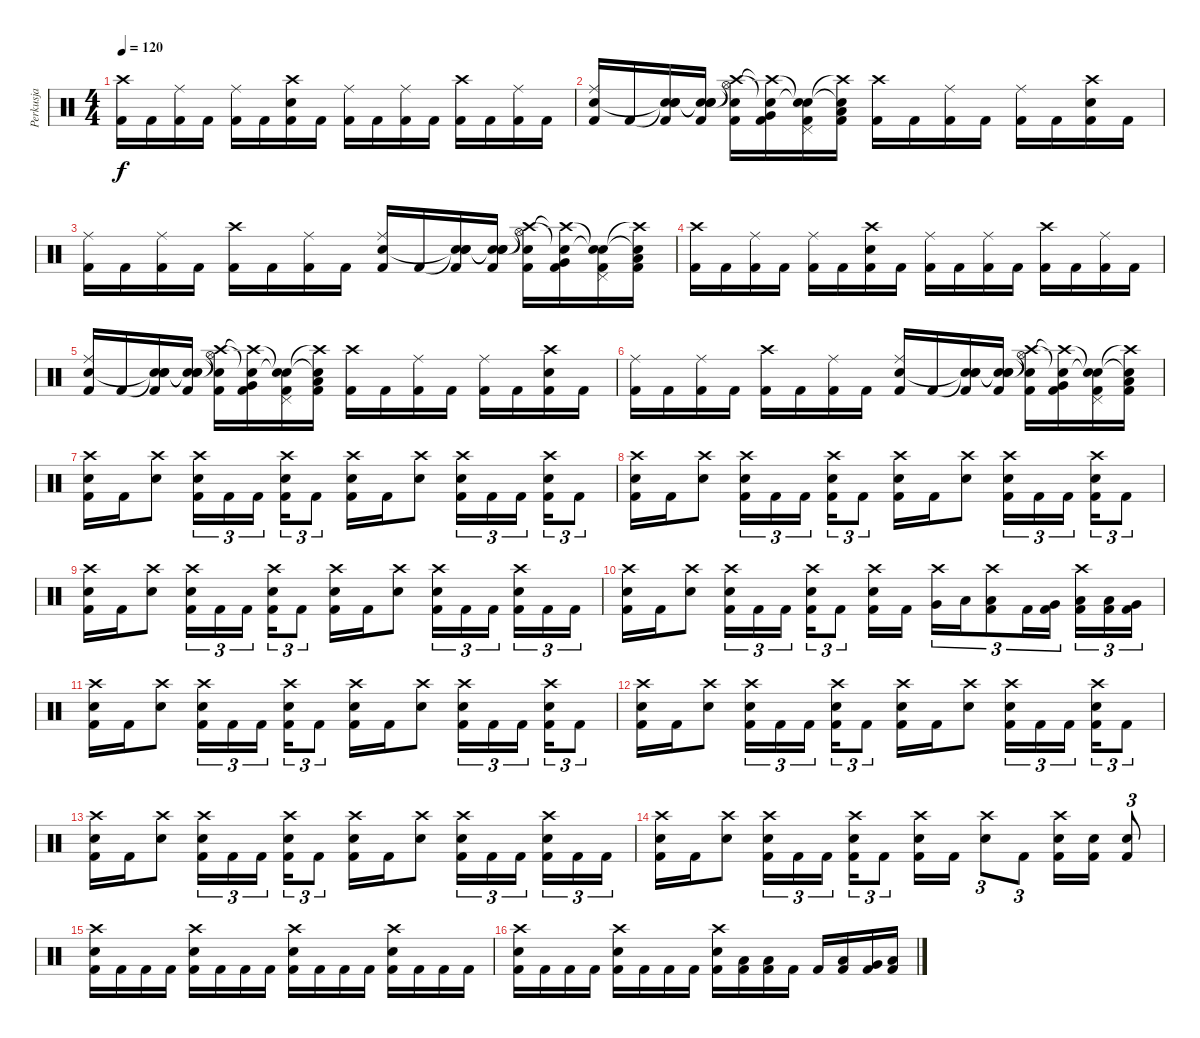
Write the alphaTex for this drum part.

\track ("Perkusja" "Perkusja") {instrument percussion}
\staff {score}
\articulation defaults
\ts (4 4)
\tempo 120
\clef neutral
\ks c
("Crash high (hit)" "Kick (hit) 2").16{dy f} "Kick (hit) 2".16 ("Ride (middle)" "Kick (hit) 2").16 "Kick (hit) 2".16 ("Ride (middle)" "Kick (hit) 2").16 "Kick (hit) 2".16 ("Crash high (hit)" "Electric Snare (hit)" "Kick (hit) 2").16 "Kick (hit) 2".16 ("Ride (middle)" "Kick (hit) 2").16 "Kick (hit) 2".16 ("Ride (middle)" "Kick (hit) 2").16 "Kick (hit) 2".16 ("Crash high (hit)" "Kick (hit) 2").16 "Kick (hit) 2".16 ("Ride (middle)" "Kick (hit) 2").16 "Kick (hit) 2".16 |
("Ride (middle)" "Electric Snare (hit)" "Kick (hit) 2").16 "Kick (hit) 2".16 ("Snare (hit)"{t} "Snare (hit)"{t} "Electric Snare (hit)" "Kick (hit) 2").16 ("Snare (hit)"{t} "Snare (hit)"{t} "Electric Snare (hit)" "Kick (hit) 2").16 ("Crash high (hit)"{t} "Hi-Hat (open)"{t} "Electric Snare (hit)" "Kick (hit) 2").16 ("Snare (hit)"{t} "Crash high (hit)"{t} "Very Low Tom (hit)" "Kick (hit) 2").16 ("Snare (hit)"{t} "Snare (hit)"{t} "Pedal Hi-Hat (hit)" "Kick (hit) 2").16 ("Snare (hit)"{t} "Crash high (hit)"{t} "Low Floor Tom (hit)" "Kick (hit) 2").16 ("Crash high (hit)" "Kick (hit) 2").16 "Kick (hit) 2".16 ("Ride (middle)" "Kick (hit) 2").16 "Kick (hit) 2".16 ("Ride (middle)" "Kick (hit) 2").16 "Kick (hit) 2".16 ("Crash high (hit)" "Electric Snare (hit)" "Kick (hit) 2").16 "Kick (hit) 2".16 |
("Ride (middle)" "Kick (hit) 2").16 "Kick (hit) 2".16 ("Ride (middle)" "Kick (hit) 2").16 "Kick (hit) 2".16 ("Crash high (hit)" "Kick (hit) 2").16 "Kick (hit) 2".16 ("Ride (middle)" "Kick (hit) 2").16 "Kick (hit) 2".16 ("Ride (middle)" "Electric Snare (hit)" "Kick (hit) 2").16 "Kick (hit) 2".16 ("Snare (hit)"{t} "Snare (hit)"{t} "Electric Snare (hit)" "Kick (hit) 2").16 ("Snare (hit)"{t} "Snare (hit)"{t} "Electric Snare (hit)" "Kick (hit) 2").16 ("Crash high (hit)"{t} "Hi-Hat (open)"{t} "Electric Snare (hit)" "Kick (hit) 2").16 ("Snare (hit)"{t} "Crash high (hit)"{t} "Very Low Tom (hit)" "Kick (hit) 2").16 ("Snare (hit)"{t} "Snare (hit)"{t} "Pedal Hi-Hat (hit)" "Kick (hit) 2").16 ("Snare (hit)"{t} "Crash high (hit)"{t} "Low Floor Tom (hit)" "Kick (hit) 2").16 |
("Crash high (hit)" "Kick (hit) 2").16 "Kick (hit) 2".16 ("Ride (middle)" "Kick (hit) 2").16 "Kick (hit) 2".16 ("Ride (middle)" "Kick (hit) 2").16 "Kick (hit) 2".16 ("Crash high (hit)" "Electric Snare (hit)" "Kick (hit) 2").16 "Kick (hit) 2".16 ("Ride (middle)" "Kick (hit) 2").16 "Kick (hit) 2".16 ("Ride (middle)" "Kick (hit) 2").16 "Kick (hit) 2".16 ("Crash high (hit)" "Kick (hit) 2").16 "Kick (hit) 2".16 ("Ride (middle)" "Kick (hit) 2").16 "Kick (hit) 2".16 |
("Ride (middle)" "Electric Snare (hit)" "Kick (hit) 2").16 "Kick (hit) 2".16 ("Snare (hit)"{t} "Snare (hit)"{t} "Electric Snare (hit)" "Kick (hit) 2").16 ("Snare (hit)"{t} "Snare (hit)"{t} "Electric Snare (hit)" "Kick (hit) 2").16 ("Crash high (hit)"{t} "Hi-Hat (open)"{t} "Electric Snare (hit)" "Kick (hit) 2").16 ("Snare (hit)"{t} "Crash high (hit)"{t} "Very Low Tom (hit)" "Kick (hit) 2").16 ("Snare (hit)"{t} "Snare (hit)"{t} "Pedal Hi-Hat (hit)" "Kick (hit) 2").16 ("Snare (hit)"{t} "Crash high (hit)"{t} "Low Floor Tom (hit)" "Kick (hit) 2").16 ("Crash high (hit)" "Kick (hit) 2").16 "Kick (hit) 2".16 ("Ride (middle)" "Kick (hit) 2").16 "Kick (hit) 2".16 ("Ride (middle)" "Kick (hit) 2").16 "Kick (hit) 2".16 ("Crash high (hit)" "Electric Snare (hit)" "Kick (hit) 2").16 "Kick (hit) 2".16 |
("Ride (middle)" "Kick (hit) 2").16 "Kick (hit) 2".16 ("Ride (middle)" "Kick (hit) 2").16 "Kick (hit) 2".16 ("Crash high (hit)" "Kick (hit) 2").16 "Kick (hit) 2".16 ("Ride (middle)" "Kick (hit) 2").16 "Kick (hit) 2".16 ("Ride (middle)" "Electric Snare (hit)" "Kick (hit) 2").16 "Kick (hit) 2".16 ("Snare (hit)"{t} "Snare (hit)"{t} "Electric Snare (hit)" "Kick (hit) 2").16 ("Snare (hit)"{t} "Snare (hit)"{t} "Electric Snare (hit)" "Kick (hit) 2").16 ("Crash high (hit)"{t} "Hi-Hat (open)"{t} "Electric Snare (hit)" "Kick (hit) 2").16 ("Snare (hit)"{t} "Crash high (hit)"{t} "Very Low Tom (hit)" "Kick (hit) 2").16 ("Snare (hit)"{t} "Snare (hit)"{t} "Pedal Hi-Hat (hit)" "Kick (hit) 2").16 ("Snare (hit)"{t} "Crash high (hit)"{t} "Low Floor Tom (hit)" "Kick (hit) 2").16 |
("Crash high (hit)" "Electric Snare (hit)" "Kick (hit) 2").16 "Kick (hit) 2".16 ("Crash high (hit)" "Electric Snare (hit)").8 ("Crash high (hit)" "Electric Snare (hit)" "Kick (hit) 2").16{tu (3 2)} "Kick (hit) 2".16{tu (3 2)} "Kick (hit) 2".16{tu (3 2) beam splitsecondary} ("Crash high (hit)" "Electric Snare (hit)" "Kick (hit) 2").16{tu (3 2)} "Kick (hit) 2".8{tu (3 2)} ("Crash high (hit)" "Electric Snare (hit)" "Kick (hit) 2").16 "Kick (hit) 2".16 ("Crash high (hit)" "Electric Snare (hit)").8 ("Crash high (hit)" "Electric Snare (hit)" "Kick (hit) 2").16{tu (3 2)} "Kick (hit) 2".16{tu (3 2)} "Kick (hit) 2".16{tu (3 2) beam splitsecondary} ("Crash high (hit)" "Electric Snare (hit)" "Kick (hit) 2").16{tu (3 2)} "Kick (hit) 2".8{tu (3 2)} |
("Crash high (hit)" "Electric Snare (hit)" "Kick (hit) 2").16 "Kick (hit) 2".16 ("Crash high (hit)" "Electric Snare (hit)").8 ("Crash high (hit)" "Electric Snare (hit)" "Kick (hit) 2").16{tu (3 2)} "Kick (hit) 2".16{tu (3 2)} "Kick (hit) 2".16{tu (3 2) beam splitsecondary} ("Crash high (hit)" "Electric Snare (hit)" "Kick (hit) 2").16{tu (3 2)} "Kick (hit) 2".8{tu (3 2)} ("Crash high (hit)" "Electric Snare (hit)" "Kick (hit) 2").16 "Kick (hit) 2".16 ("Crash high (hit)" "Electric Snare (hit)").8 ("Crash high (hit)" "Electric Snare (hit)" "Kick (hit) 2").16{tu (3 2)} "Kick (hit) 2".16{tu (3 2)} "Kick (hit) 2".16{tu (3 2) beam splitsecondary} ("Crash high (hit)" "Electric Snare (hit)" "Kick (hit) 2").16{tu (3 2)} "Kick (hit) 2".8{tu (3 2)} |
("Crash high (hit)" "Electric Snare (hit)" "Kick (hit) 2").16 "Kick (hit) 2".16 ("Crash high (hit)" "Electric Snare (hit)").8 ("Crash high (hit)" "Electric Snare (hit)" "Kick (hit) 2").16{tu (3 2)} "Kick (hit) 2".16{tu (3 2)} "Kick (hit) 2".16{tu (3 2) beam splitsecondary} ("Crash high (hit)" "Electric Snare (hit)" "Kick (hit) 2").16{tu (3 2)} "Kick (hit) 2".8{tu (3 2)} ("Crash high (hit)" "Electric Snare (hit)" "Kick (hit) 2").16 "Kick (hit) 2".16 ("Crash high (hit)" "Electric Snare (hit)").8 ("Crash high (hit)" "Electric Snare (hit)" "Kick (hit) 2").16{tu (3 2)} "Kick (hit) 2".16{tu (3 2)} "Kick (hit) 2".16{tu (3 2) beam splitsecondary} ("Crash high (hit)" "Electric Snare (hit)" "Kick (hit) 2").16{tu (3 2)} "Kick (hit) 2".16{tu (3 2)} "Kick (hit) 2".16{tu (3 2)} |
("Crash high (hit)" "Electric Snare (hit)" "Kick (hit) 2").16 "Kick (hit) 2".16 ("Crash high (hit)" "Electric Snare (hit)").8 ("Crash high (hit)" "Electric Snare (hit)" "Kick (hit) 2").16{tu (3 2)} "Kick (hit) 2".16{tu (3 2)} "Kick (hit) 2".16{tu (3 2) beam splitsecondary} ("Crash high (hit)" "Electric Snare (hit)" "Kick (hit) 2").16{tu (3 2)} "Kick (hit) 2".8{tu (3 2)} ("Crash high (hit)" "Electric Snare (hit)" "Kick (hit) 2").16 "Kick (hit) 2".16{beam splitsecondary} ("Crash high (hit)" "Very Low Tom (hit)").16{tu (3 2)} "Low Floor Tom (hit)".16{tu (3 2)} ("Crash high (hit)" "Low Floor Tom (hit)" "Kick (hit) 2").8{tu (3 2)} "Kick (hit) 2".16{tu (3 2)} ("Very Low Tom (hit)" "Kick (hit) 2").16{tu (3 2) beam splitsecondary} ("Crash high (hit)" "Low Tom (hit)" "Kick (hit) 2").16{tu (3 2)} ("Low Tom (hit)" "Kick (hit) 2").16{tu (3 2)} ("Very Low Tom (hit)" "Kick (hit) 2").16{tu (3 2)} |
("Crash high (hit)" "Electric Snare (hit)" "Kick (hit) 2").16 "Kick (hit) 2".16 ("Crash high (hit)" "Electric Snare (hit)").8 ("Crash high (hit)" "Electric Snare (hit)" "Kick (hit) 2").16{tu (3 2)} "Kick (hit) 2".16{tu (3 2)} "Kick (hit) 2".16{tu (3 2) beam splitsecondary} ("Crash high (hit)" "Electric Snare (hit)" "Kick (hit) 2").16{tu (3 2)} "Kick (hit) 2".8{tu (3 2)} ("Crash high (hit)" "Electric Snare (hit)" "Kick (hit) 2").16 "Kick (hit) 2".16 ("Crash high (hit)" "Electric Snare (hit)").8 ("Crash high (hit)" "Electric Snare (hit)" "Kick (hit) 2").16{tu (3 2)} "Kick (hit) 2".16{tu (3 2)} "Kick (hit) 2".16{tu (3 2) beam splitsecondary} ("Crash high (hit)" "Electric Snare (hit)" "Kick (hit) 2").16{tu (3 2)} "Kick (hit) 2".8{tu (3 2)} |
("Crash high (hit)" "Electric Snare (hit)" "Kick (hit) 2").16 "Kick (hit) 2".16 ("Crash high (hit)" "Electric Snare (hit)").8 ("Crash high (hit)" "Electric Snare (hit)" "Kick (hit) 2").16{tu (3 2)} "Kick (hit) 2".16{tu (3 2)} "Kick (hit) 2".16{tu (3 2) beam splitsecondary} ("Crash high (hit)" "Electric Snare (hit)" "Kick (hit) 2").16{tu (3 2)} "Kick (hit) 2".8{tu (3 2)} ("Crash high (hit)" "Electric Snare (hit)" "Kick (hit) 2").16 "Kick (hit) 2".16 ("Crash high (hit)" "Electric Snare (hit)").8 ("Crash high (hit)" "Electric Snare (hit)" "Kick (hit) 2").16{tu (3 2)} "Kick (hit) 2".16{tu (3 2)} "Kick (hit) 2".16{tu (3 2) beam splitsecondary} ("Crash high (hit)" "Electric Snare (hit)" "Kick (hit) 2").16{tu (3 2)} "Kick (hit) 2".8{tu (3 2)} |
("Crash high (hit)" "Electric Snare (hit)" "Kick (hit) 2").16 "Kick (hit) 2".16 ("Crash high (hit)" "Electric Snare (hit)").8 ("Crash high (hit)" "Electric Snare (hit)" "Kick (hit) 2").16{tu (3 2)} "Kick (hit) 2".16{tu (3 2)} "Kick (hit) 2".16{tu (3 2) beam splitsecondary} ("Crash high (hit)" "Electric Snare (hit)" "Kick (hit) 2").16{tu (3 2)} "Kick (hit) 2".8{tu (3 2)} ("Crash high (hit)" "Electric Snare (hit)" "Kick (hit) 2").16 "Kick (hit) 2".16 ("Crash high (hit)" "Electric Snare (hit)").8 ("Crash high (hit)" "Electric Snare (hit)" "Kick (hit) 2").16{tu (3 2)} "Kick (hit) 2".16{tu (3 2)} "Kick (hit) 2".16{tu (3 2) beam splitsecondary} ("Crash high (hit)" "Electric Snare (hit)" "Kick (hit) 2").16{tu (3 2)} "Kick (hit) 2".16{tu (3 2)} "Kick (hit) 2".16{tu (3 2)} |
("Crash high (hit)" "Electric Snare (hit)" "Kick (hit) 2").16 "Kick (hit) 2".16 ("Crash high (hit)" "Electric Snare (hit)").8 ("Crash high (hit)" "Electric Snare (hit)" "Kick (hit) 2").16{tu (3 2)} "Kick (hit) 2".16{tu (3 2)} "Kick (hit) 2".16{tu (3 2) beam splitsecondary} ("Crash high (hit)" "Electric Snare (hit)" "Kick (hit) 2").16{tu (3 2)} "Kick (hit) 2".8{tu (3 2)} ("Crash high (hit)" "Electric Snare (hit)" "Kick (hit) 2").16 "Kick (hit) 2".16 ("Crash high (hit)" "Electric Snare (hit)").8{tu (3 2)} "Kick (hit) 2".8{tu (3 2)} ("Crash high (hit)" "Electric Snare (hit)" "Kick (hit) 2").16 ("Electric Snare (hit)" "Kick (hit) 2").16 ("Electric Snare (hit)" "Kick (hit) 2").8{tu (3 2)} |
("Crash high (hit)" "Electric Snare (hit)" "Kick (hit) 2").16 "Kick (hit) 2".16 "Kick (hit) 2".16 "Kick (hit) 2".16 ("Crash high (hit)" "Electric Snare (hit)" "Kick (hit) 2").16 "Kick (hit) 2".16 "Kick (hit) 2".16 "Kick (hit) 2".16 ("Crash high (hit)" "Electric Snare (hit)" "Kick (hit) 2").16 "Kick (hit) 2".16 "Kick (hit) 2".16 "Kick (hit) 2".16 ("Crash high (hit)" "Electric Snare (hit)" "Kick (hit) 2").16 "Kick (hit) 2".16 "Kick (hit) 2".16 "Kick (hit) 2".16 |
("Crash high (hit)" "Electric Snare (hit)" "Kick (hit) 2").16 "Kick (hit) 2".16 "Kick (hit) 2".16 "Kick (hit) 2".16 ("Crash high (hit)" "Electric Snare (hit)" "Kick (hit) 2").16 "Kick (hit) 2".16 "Kick (hit) 2".16 "Kick (hit) 2".16 ("Crash high (hit)" "Electric Snare (hit)" "Kick (hit) 2").16 ("Low Floor Tom (hit)" "Kick (hit) 2").16 ("Low Floor Tom (hit)" "Kick (hit) 2").16 "Kick (hit) 2".16 "Kick (hit) 2".16 ("Low Floor Tom (hit)" "Kick (hit) 2").16 ("Very Low Tom (hit)" "Kick (hit) 2").16 ("Low Floor Tom (hit)" "Kick (hit) 2").16
